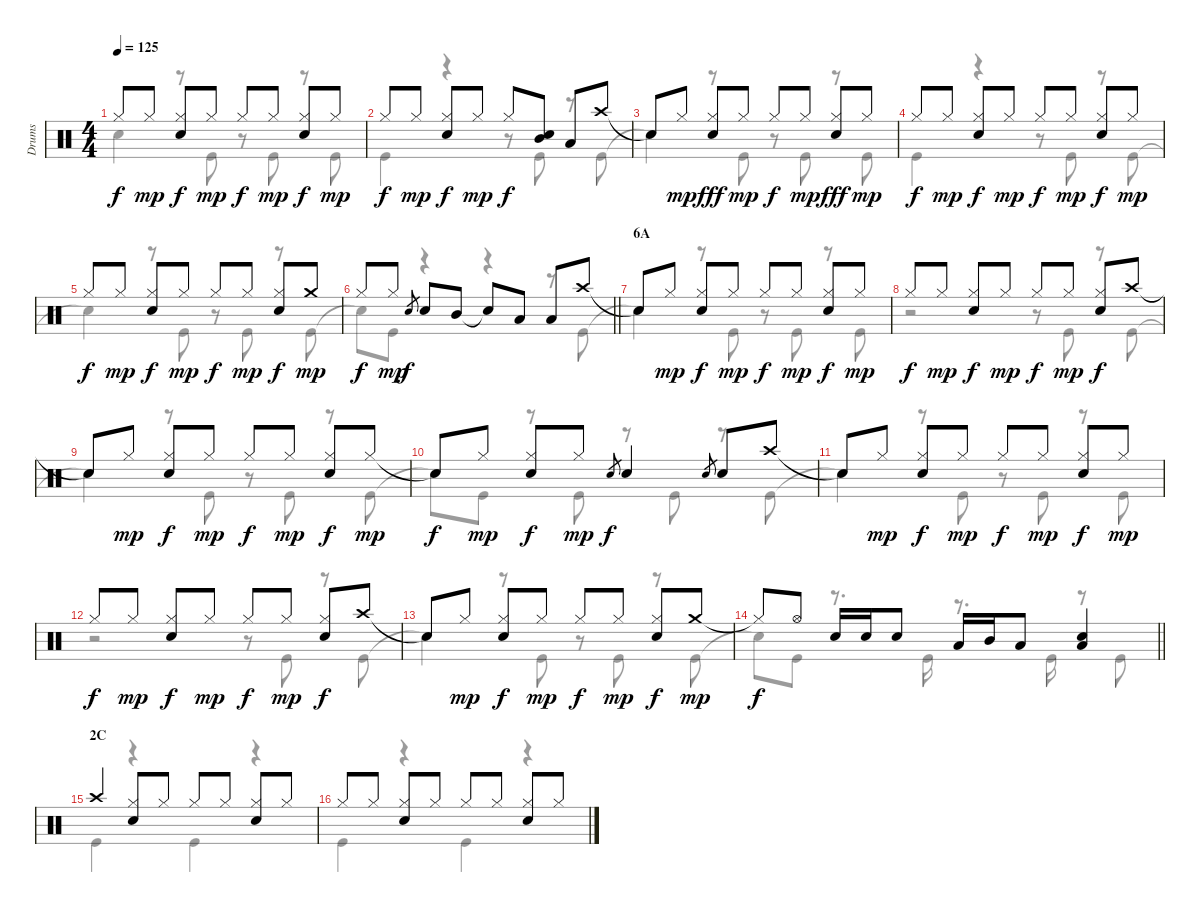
\track ("Drums" "Drums") {instrument percussion}
\staff {score}
\articulation defaults
\voice
\ts (4 4)
\tempo 125
\clef neutral
\ks c "Hi-Hat (closed)".8{dy f} "Hi-Hat (closed)".8{dy mp}
("Hi-Hat (closed)" "Snare (hit) 2").8{dy f} "Hi-Hat (closed)".8{dy mp} "Hi-Hat (closed)".8{dy f} "Hi-Hat (closed)".8{dy mp} ("Hi-Hat (closed)" "Snare (hit) 2").8{dy f} "Hi-Hat (closed)".8{dy mp} |
"Hi-Hat (closed)".8{dy f} "Hi-Hat (closed)".8{dy mp} ("Hi-Hat (closed)" "Snare (hit) 2").8{dy f} "Hi-Hat (closed)".8{dy mp} "Hi-Hat (closed)".8{dy f} ("Snare (hit) 2" "Mid Tom (hit)").8 "Low Tom (hit)".8 "Crash high (hit)".8 |
"Snare (hit)"{t}.8 "Hi-Hat (closed)".8{dy mp} ("Hi-Hat (closed)" "Snare (hit) 2").8{dy fff} "Hi-Hat (closed)".8{dy mp} "Hi-Hat (closed)".8{dy f} "Hi-Hat (closed)".8{dy mp} ("Hi-Hat (closed)" "Snare (hit) 2").8{dy fff} "Hi-Hat (closed)".8{dy mp} |
"Hi-Hat (closed)".8{dy f} "Hi-Hat (closed)".8{dy mp} ("Hi-Hat (closed)" "Snare (hit) 2").8{dy f} "Hi-Hat (closed)".8{dy mp} "Hi-Hat (closed)".8{dy f} "Hi-Hat (closed)".8{dy mp} ("Hi-Hat (closed)" "Snare (hit) 2").8{dy f} "Hi-Hat (closed)".8{dy mp} |
"Hi-Hat (closed)".8{dy f} "Hi-Hat (closed)".8{dy mp} ("Hi-Hat (closed)" "Snare (hit) 2").8{dy f} "Hi-Hat (closed)".8{dy mp} "Hi-Hat (closed)".8{dy f} "Hi-Hat (closed)".8{dy mp} ("Hi-Hat (closed)" "Snare (hit) 2").8{dy f} "Crash medium (hit)".8{dy mp} |
\barLineRight lightlight "Hi-Hat (closed)".8{dy f} "Hi-Hat (closed)".8{dy mp} "Snare (hit) 2".8{gr dy f} "Snare (hit) 2".8 "Mid Tom (hit)".8 "Snare (hit)"{t}.8 "Low Tom (hit)".8 "Low Tom (hit)".8 "Crash high (hit)".8
|
\section ("" "6A")
"Snare (hit)"{t}.8 "Hi-Hat (closed)".8{dy mp} ("Hi-Hat (closed)" "Snare (hit) 2").8{dy f} "Hi-Hat (closed)".8{dy mp} "Hi-Hat (closed)".8{dy f} "Hi-Hat (closed)".8{dy mp} ("Hi-Hat (closed)" "Snare (hit) 2").8{dy f} "Hi-Hat (closed)".8{dy mp} |
"Hi-Hat (closed)".8{dy f} "Hi-Hat (closed)".8{dy mp} ("Hi-Hat (closed)" "Snare (hit) 2").8{dy f} "Hi-Hat (closed)".8{dy mp} "Hi-Hat (closed)".8{dy f} "Hi-Hat (closed)".8{dy mp} ("Hi-Hat (closed)" "Snare (hit) 2").8{dy f} "Crash high (hit)".8 |
"Snare (hit)"{t}.8 "Hi-Hat (closed)".8{dy mp} ("Hi-Hat (closed)" "Snare (hit) 2").8{dy f} "Hi-Hat (closed)".8{dy mp} "Hi-Hat (closed)".8{dy f} "Hi-Hat (closed)".8{dy mp} ("Hi-Hat (closed)" "Snare (hit) 2").8{dy f} "Hi-Hat (closed)".8{dy mp} |
"Snare (hit)"{t}.8{dy f} "Hi-Hat (closed)".8{dy mp} ("Hi-Hat (closed)" "Snare (hit) 2").8{dy f} "Hi-Hat (closed)".8{dy mp} "Snare (hit) 2".8{gr dy f} "Snare (hit) 2".4 "Snare (hit) 2".8{gr} "Snare (hit) 2".8 "Crash high (hit)".8 |
"Snare (hit)"{t}.8 "Hi-Hat (closed)".8{dy mp} ("Hi-Hat (closed)" "Snare (hit) 2").8{dy f} "Hi-Hat (closed)".8{dy mp} "Hi-Hat (closed)".8{dy f} "Hi-Hat (closed)".8{dy mp} ("Hi-Hat (closed)" "Snare (hit) 2").8{dy f} "Hi-Hat (closed)".8{dy mp} |
"Hi-Hat (closed)".8{dy f} "Hi-Hat (closed)".8{dy mp} ("Hi-Hat (closed)" "Snare (hit) 2").8{dy f} "Hi-Hat (closed)".8{dy mp} "Hi-Hat (closed)".8{dy f} "Hi-Hat (closed)".8{dy mp} ("Hi-Hat (closed)" "Snare (hit) 2").8{dy f} "Crash high (hit)".8 |
"Snare (hit)"{t}.8 "Hi-Hat (closed)".8{dy mp} ("Hi-Hat (closed)" "Snare (hit) 2").8{dy f} "Hi-Hat (closed)".8{dy mp} "Hi-Hat (closed)".8{dy f} "Hi-Hat (closed)".8{dy mp} ("Hi-Hat (closed)" "Snare (hit) 2").8{dy f} "Crash medium (hit)".8{dy mp} |
\barLineRight lightlight "Hi-Hat (closed)"{t}.8{dy f} "Hi-Hat (open)".8 "Snare (hit) 2".16 "Snare (hit) 2".16 "Snare (hit) 2".8 "Low Tom (hit)".16 "Mid Tom (hit)".16 "Low Tom (hit)".8
("Snare (hit) 2" "Low Tom (hit)").4 |
\section ("" "2C")
"Crash high (hit)".4 ("Hi-Hat (closed)" "Snare (hit) 2").8 "Hi-Hat (closed)".8 "Hi-Hat (closed)".8 "Hi-Hat (closed)".8 ("Hi-Hat (closed)" "Snare (hit) 2").8 "Hi-Hat (closed)".8 |
"Hi-Hat (closed)".8 "Hi-Hat (closed)".8 ("Hi-Hat (closed)" "Snare (hit) 2").8 "Hi-Hat (closed)".8 "Hi-Hat (closed)".8 "Hi-Hat (closed)".8 ("Hi-Hat (closed)" "Snare (hit) 2").8 "Hi-Hat (closed)".8
\voice
\clef neutral
\ottava regular
\simile none
\ks c "Snare (hit)"{t}.4{dy f}
r.8 "Kick (hit)".8 r.8 "Kick (hit)".8 r.8 "Kick (hit)".8 |
"Kick (hit)".4 r.4 r.8 "Kick (hit)".8 r.8 "Kick (hit)".8 |
"Snare (hit)"{t}.4 r.8 "Kick (hit)".8 r.8 "Kick (hit)".8 r.8 "Kick (hit)".8 |
"Kick (hit)".4 r.4 r.8 "Kick (hit)".8 r.8 "Kick (hit)".8 |
"Snare (hit)"{t}.4 r.8 "Kick (hit)".8 r.8 "Kick (hit)".8 r.8 "Kick (hit)".8 |
\barLineRight lightlight "Snare (hit)"{t}.8 "Kick (hit)".8
r.4 r.4 r.8 "Kick (hit)".8 |
"Snare (hit)"{t}.4 r.8 "Kick (hit)".8 r.8 "Kick (hit)".8 r.8 "Kick (hit)".8 |
r.2 r.8 "Kick (hit)".8 r.8 "Kick (hit)".8 |
"Snare (hit)"{t}.4 r.8 "Kick (hit)".8 r.8 "Kick (hit)".8 r.8 "Kick (hit)".8 |
"Snare (hit)"{t}.8 "Kick (hit)".8 r.8 "Kick (hit)".8 r.8 "Kick (hit)".8 r.8 "Kick (hit)".8 |
"Snare (hit)"{t}.4 r.8 "Kick (hit)".8 r.8 "Kick (hit)".8 r.8 "Kick (hit)".8 |
r.2 r.8 "Kick (hit)".8 r.8 "Kick (hit)".8 |
"Snare (hit)"{t}.4 r.8 "Kick (hit)".8 r.8 "Kick (hit)".8 r.8 "Kick (hit)".8 |
\barLineRight lightlight "Snare (hit)"{t}.8 "Kick (hit)".8
r.8{d} "Kick (hit)".16 r.8{d} "Kick (hit)".16 r.8 "Kick (hit)".8 |
"Kick (hit)".4 r.4 "Kick (hit)".4 r.4 |
"Kick (hit)".4 r.4 "Kick (hit)".4 r.4
